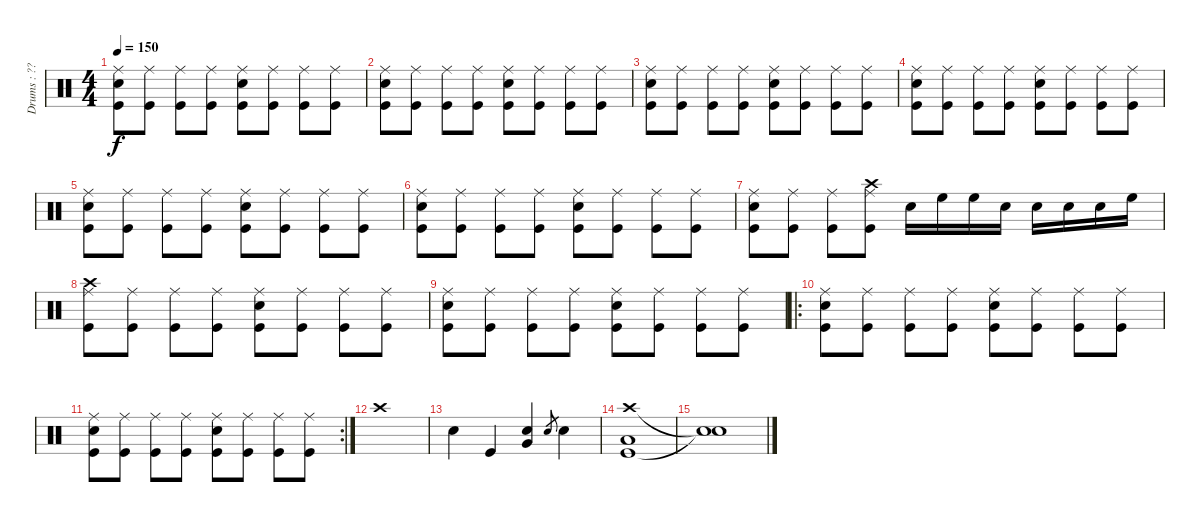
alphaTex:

\track ("Drums : ???" "Drums : ??") {instrument percussion}
\staff {score}
\articulation defaults
\ts (4 4)
\tempo 150
\clef neutral
\ks c
("Snare (hit) 2" "Ride (middle)" "Kick (hit)").8{dy f} ("Ride (middle)" "Kick (hit)").8 ("Ride (middle)" "Kick (hit)").8 ("Ride (middle)" "Kick (hit)").8 ("Snare (hit) 2" "Ride (middle)" "Kick (hit)").8 ("Ride (middle)" "Kick (hit)").8 ("Ride (middle)" "Kick (hit)").8 ("Ride (middle)" "Kick (hit)").8 |
("Snare (hit) 2" "Ride (middle)" "Kick (hit)").8 ("Ride (middle)" "Kick (hit)").8 ("Ride (middle)" "Kick (hit)").8 ("Ride (middle)" "Kick (hit)").8 ("Snare (hit) 2" "Ride (middle)" "Kick (hit)").8 ("Ride (middle)" "Kick (hit)").8 ("Ride (middle)" "Kick (hit)").8 ("Ride (middle)" "Kick (hit)").8 |
("Snare (hit) 2" "Ride (middle)" "Kick (hit)").8 ("Ride (middle)" "Kick (hit)").8 ("Ride (middle)" "Kick (hit)").8 ("Ride (middle)" "Kick (hit)").8 ("Snare (hit) 2" "Ride (middle)" "Kick (hit)").8 ("Ride (middle)" "Kick (hit)").8 ("Ride (middle)" "Kick (hit)").8 ("Ride (middle)" "Kick (hit)").8 |
("Snare (hit) 2" "Ride (middle)" "Kick (hit)").8 ("Ride (middle)" "Kick (hit)").8 ("Ride (middle)" "Kick (hit)").8 ("Ride (middle)" "Kick (hit)").8 ("Snare (hit) 2" "Ride (middle)" "Kick (hit)").8 ("Ride (middle)" "Kick (hit)").8 ("Ride (middle)" "Kick (hit)").8 ("Ride (middle)" "Kick (hit)").8 |
("Snare (hit) 2" "Ride (middle)" "Kick (hit)").8 ("Ride (middle)" "Kick (hit)").8 ("Ride (middle)" "Kick (hit)").8 ("Ride (middle)" "Kick (hit)").8 ("Snare (hit) 2" "Ride (middle)" "Kick (hit)").8 ("Ride (middle)" "Kick (hit)").8 ("Ride (middle)" "Kick (hit)").8 ("Ride (middle)" "Kick (hit)").8 |
("Snare (hit) 2" "Ride (middle)" "Kick (hit)").8 ("Ride (middle)" "Kick (hit)").8 ("Ride (middle)" "Kick (hit)").8 ("Ride (middle)" "Kick (hit)").8 ("Snare (hit) 2" "Ride (middle)" "Kick (hit)").8 ("Ride (middle)" "Kick (hit)").8 ("Ride (middle)" "Kick (hit)").8 ("Ride (middle)" "Kick (hit)").8 |
("Snare (hit) 2" "Ride (middle)" "Kick (hit)").8 ("Ride (middle)" "Kick (hit)").8 ("Ride (middle)" "Kick (hit)").8 ("Crash high (hit)" "Ride (middle)" "Kick (hit)").8 "Snare (hit) 2".16 "High Floor Tom (hit)".16 "High Floor Tom (hit)".16 "Snare (hit) 2".16 "Snare (hit) 2".16 "Snare (hit) 2".16 "Snare (hit) 2".16 "High Floor Tom (hit)".16 |
("Crash high (hit)" "Ride (middle)" "Kick (hit)").8 ("Ride (middle)" "Kick (hit)").8 ("Ride (middle)" "Kick (hit)").8 ("Ride (middle)" "Kick (hit)").8 ("Snare (hit) 2" "Ride (middle)" "Kick (hit)").8 ("Ride (middle)" "Kick (hit)").8 ("Ride (middle)" "Kick (hit)").8 ("Ride (middle)" "Kick (hit)").8 |
("Snare (hit) 2" "Ride (middle)" "Kick (hit)").8 ("Ride (middle)" "Kick (hit)").8 ("Ride (middle)" "Kick (hit)").8 ("Ride (middle)" "Kick (hit)").8 ("Snare (hit) 2" "Ride (middle)" "Kick (hit)").8 ("Ride (middle)" "Kick (hit)").8 ("Ride (middle)" "Kick (hit)").8 ("Ride (middle)" "Kick (hit)").8 |
\ro
("Snare (hit) 2" "Ride (middle)" "Kick (hit)").8 ("Ride (middle)" "Kick (hit)").8 ("Ride (middle)" "Kick (hit)").8 ("Ride (middle)" "Kick (hit)").8 ("Snare (hit) 2" "Ride (middle)" "Kick (hit)").8 ("Ride (middle)" "Kick (hit)").8 ("Ride (middle)" "Kick (hit)").8 ("Ride (middle)" "Kick (hit)").8 |
\rc 2
("Snare (hit) 2" "Ride (middle)" "Kick (hit)").8 ("Ride (middle)" "Kick (hit)").8 ("Ride (middle)" "Kick (hit)").8 ("Ride (middle)" "Kick (hit)").8 ("Snare (hit) 2" "Ride (middle)" "Kick (hit)").8 ("Ride (middle)" "Kick (hit)").8 ("Ride (middle)" "Kick (hit)").8 ("Ride (middle)" "Kick (hit)").8 |
"Crash high (hit)".1 |
"Snare (hit) 2".4 "Kick (hit)".4 ("Snare (hit) 2" "Very Low Tom (hit)").4 "Snare (hit) 2".8{gr} "Snare (hit) 2".4 |
("Crash high (hit)" "Kick (hit)" "Low Tom (hit)").1 |
("Snare (hit)"{t} "Snare (hit)"{t}).1
